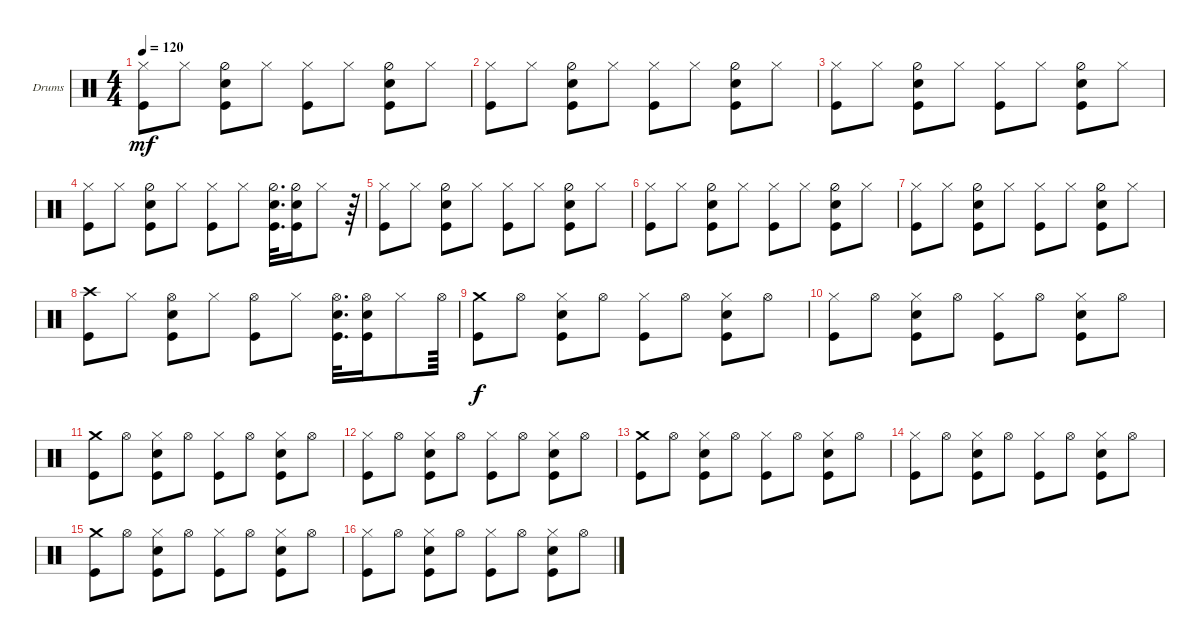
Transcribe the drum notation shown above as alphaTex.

\bracketExtendMode groupsimilarinstruments
\firstSystemTrackNameOrientation horizontal
\otherSystemsTrackNameOrientation horizontal
\track ("Drumkit" "Drums") {instrument percussion}
\staff {score}
\articulation defaults
\ts (4 4)
\tempo 120
\clef neutral
\ks c
("Kick (hit)" "Hi-Hat (closed)").8{dy mf} "Hi-Hat (closed)".8 ("Kick (hit)" "Hi-Hat (half)" "Snare (hit) 2").8 "Hi-Hat (closed)".8 ("Kick (hit)" "Hi-Hat (closed)").8 "Hi-Hat (closed)".8 ("Kick (hit)" "Hi-Hat (half)" "Snare (hit) 2").8 "Hi-Hat (closed)".8 |
("Kick (hit)" "Hi-Hat (closed)").8 "Hi-Hat (closed)".8 ("Kick (hit)" "Hi-Hat (half)" "Snare (hit) 2").8 "Hi-Hat (closed)".8 ("Kick (hit)" "Hi-Hat (closed)").8 "Hi-Hat (closed)".8 ("Kick (hit)" "Hi-Hat (half)" "Snare (hit) 2").8 "Hi-Hat (closed)".8 |
("Kick (hit)" "Hi-Hat (closed)").8 "Hi-Hat (closed)".8 ("Kick (hit)" "Hi-Hat (half)" "Snare (hit) 2").8 "Hi-Hat (closed)".8 ("Kick (hit)" "Hi-Hat (closed)").8 "Hi-Hat (closed)".8 ("Kick (hit)" "Hi-Hat (half)" "Snare (hit) 2").8 "Hi-Hat (closed)".8 |
("Kick (hit)" "Hi-Hat (closed)").8 "Hi-Hat (closed)".8 ("Kick (hit)" "Hi-Hat (half)" "Snare (hit) 2").8 "Hi-Hat (closed)".8 ("Kick (hit)" "Hi-Hat (closed)").8 "Hi-Hat (closed)".8 ("Kick (hit)" "Hi-Hat (half)" "Snare (hit) 2").32{d} ("Kick (hit)" "Hi-Hat (half)" "Snare (hit) 2").16 "Hi-Hat (closed)".8 r.64 |
("Kick (hit)" "Hi-Hat (closed)").8 "Hi-Hat (closed)".8 ("Kick (hit)" "Hi-Hat (half)" "Snare (hit) 2").8 "Hi-Hat (closed)".8 ("Kick (hit)" "Hi-Hat (closed)").8 "Hi-Hat (closed)".8 ("Kick (hit)" "Hi-Hat (half)" "Snare (hit) 2").8 "Hi-Hat (closed)".8 |
("Kick (hit)" "Hi-Hat (closed)").8 "Hi-Hat (closed)".8 ("Kick (hit)" "Hi-Hat (half)" "Snare (hit) 2").8 "Hi-Hat (closed)".8 ("Kick (hit)" "Hi-Hat (closed)").8 "Hi-Hat (closed)".8 ("Kick (hit)" "Hi-Hat (half)" "Snare (hit) 2").8 "Hi-Hat (closed)".8 |
("Kick (hit)" "Hi-Hat (closed)").8 "Hi-Hat (closed)".8 ("Kick (hit)" "Hi-Hat (half)" "Snare (hit) 2").8 "Hi-Hat (closed)".8 ("Kick (hit)" "Hi-Hat (closed)").8 "Hi-Hat (closed)".8 ("Kick (hit)" "Hi-Hat (half)" "Snare (hit) 2").8 "Hi-Hat (closed)".8 |
("Kick (hit)" "Crash high (hit)").8 "Hi-Hat (closed)".8 ("Kick (hit)" "Hi-Hat (open)" "Snare (hit) 2").8 "Hi-Hat (closed)".8 ("Kick (hit)" "Hi-Hat (open)").8 "Hi-Hat (closed)".8 ("Kick (hit)" "Hi-Hat (open)" "Snare (hit) 2").32{d} ("Kick (hit)" "Hi-Hat (open)" "Snare (hit) 2").16 "Hi-Hat (closed)".8 "Hi-Hat (open)".64 |
("Kick (hit)" "Crash medium (hit)").8{dy f} "Hi-Hat (open)".8 ("Hi-Hat (closed)" "Snare (hit) 2" "Kick (hit)").8 "Hi-Hat (open)".8 ("Hi-Hat (closed)" "Kick (hit)").8 "Hi-Hat (open)".8 ("Hi-Hat (closed)" "Snare (hit) 2" "Kick (hit)").8 "Hi-Hat (open)".8 |
("Hi-Hat (closed)" "Kick (hit)").8 "Hi-Hat (open)".8 ("Hi-Hat (closed)" "Snare (hit) 2" "Kick (hit)").8 "Hi-Hat (open)".8 ("Hi-Hat (closed)" "Kick (hit)").8 "Hi-Hat (open)".8 ("Hi-Hat (closed)" "Snare (hit) 2" "Kick (hit)").8 "Hi-Hat (open)".8 |
("Kick (hit)" "Crash medium (hit)").8 "Hi-Hat (open)".8 ("Hi-Hat (closed)" "Snare (hit) 2" "Kick (hit)").8 "Hi-Hat (open)".8 ("Hi-Hat (closed)" "Kick (hit)").8 "Hi-Hat (open)".8 ("Hi-Hat (closed)" "Snare (hit) 2" "Kick (hit)").8 "Hi-Hat (open)".8 |
("Hi-Hat (closed)" "Kick (hit)").8 "Hi-Hat (open)".8 ("Hi-Hat (closed)" "Snare (hit) 2" "Kick (hit)").8 "Hi-Hat (open)".8 ("Hi-Hat (closed)" "Kick (hit)").8 "Hi-Hat (open)".8 ("Hi-Hat (closed)" "Snare (hit) 2" "Kick (hit)").8 "Hi-Hat (open)".8 |
("Kick (hit)" "Crash medium (hit)").8 "Hi-Hat (open)".8 ("Hi-Hat (closed)" "Snare (hit) 2" "Kick (hit)").8 "Hi-Hat (open)".8 ("Hi-Hat (closed)" "Kick (hit)").8 "Hi-Hat (open)".8 ("Hi-Hat (closed)" "Snare (hit) 2" "Kick (hit)").8 "Hi-Hat (open)".8 |
("Hi-Hat (closed)" "Kick (hit)").8 "Hi-Hat (open)".8 ("Hi-Hat (closed)" "Snare (hit) 2" "Kick (hit)").8 "Hi-Hat (open)".8 ("Hi-Hat (closed)" "Kick (hit)").8 "Hi-Hat (open)".8 ("Hi-Hat (closed)" "Snare (hit) 2" "Kick (hit)").8 "Hi-Hat (open)".8 |
("Kick (hit)" "Crash medium (hit)").8 "Hi-Hat (open)".8 ("Hi-Hat (closed)" "Snare (hit) 2" "Kick (hit)").8 "Hi-Hat (open)".8 ("Hi-Hat (closed)" "Kick (hit)").8 "Hi-Hat (open)".8 ("Hi-Hat (closed)" "Snare (hit) 2" "Kick (hit)").8 "Hi-Hat (open)".8 |
("Hi-Hat (closed)" "Kick (hit)").8 "Hi-Hat (open)".8 ("Hi-Hat (closed)" "Snare (hit) 2" "Kick (hit)").8 "Hi-Hat (open)".8 ("Hi-Hat (closed)" "Kick (hit)").8 "Hi-Hat (open)".8 ("Hi-Hat (closed)" "Snare (hit) 2" "Kick (hit)").8 "Hi-Hat (open)".8
